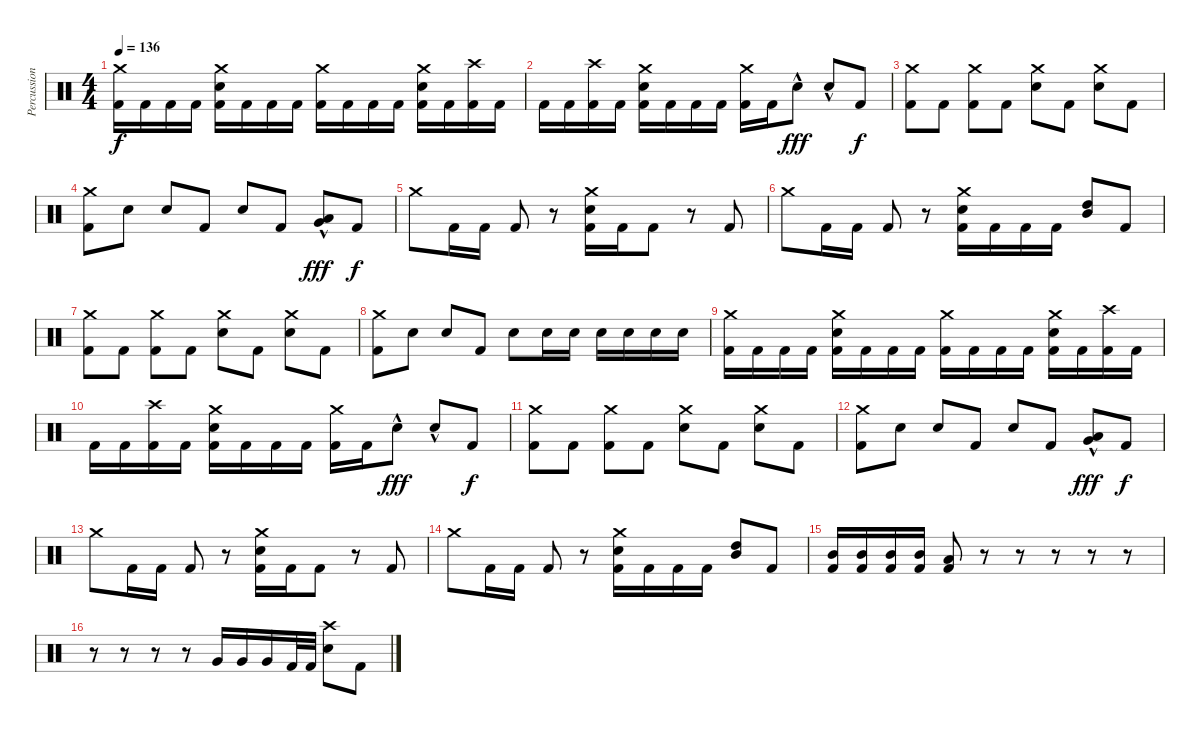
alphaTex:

\track ("Percussion" "Percussion") {instrument percussion}
\staff {score}
\articulation defaults
\ts (4 4)
\tempo 136
\clef neutral
\ks c
("Crash medium (hit)" "Kick (hit) 2").16{dy f} "Kick (hit) 2".16 "Kick (hit) 2".16 "Kick (hit) 2".16 ("Crash medium (hit)" "Electric Snare (hit)" "Kick (hit) 2").16 "Kick (hit) 2".16 "Kick (hit) 2".16 "Kick (hit) 2".16 ("Crash medium (hit)" "Kick (hit) 2").16 "Kick (hit) 2".16 "Kick (hit) 2".16 "Kick (hit) 2".16 ("Crash medium (hit)" "Electric Snare (hit)" "Kick (hit) 2").16 "Kick (hit) 2".16 ("Crash high (hit)" "Kick (hit) 2").16 "Kick (hit) 2".16 |
"Kick (hit) 2".16 "Kick (hit) 2".16 ("Crash high (hit)" "Kick (hit) 2").16 "Kick (hit) 2".16 ("Crash medium (hit)" "Electric Snare (hit)" "Kick (hit) 2").16 "Kick (hit) 2".16 "Kick (hit) 2".16 "Kick (hit) 2".16 ("Crash medium (hit)" "Kick (hit) 2").16 "Kick (hit) 2".16 "Electric Snare (hit)"{hac}.8{dy fff} "Electric Snare (hit)"{hac}.8 "Kick (hit) 2".8{dy f} |
("Crash medium (hit)" "Kick (hit) 2").8 "Kick (hit) 2".8 ("Crash medium (hit)" "Kick (hit) 2").8 "Kick (hit) 2".8 ("Crash medium (hit)" "Electric Snare (hit)").8 "Kick (hit) 2".8 ("Crash medium (hit)" "Electric Snare (hit)").8 "Kick (hit) 2".8 |
("Crash medium (hit)" "Kick (hit) 2").8 "Electric Snare (hit)".8 "Electric Snare (hit)".8 "Kick (hit) 2".8 "Electric Snare (hit)".8 "Kick (hit) 2".8 ("Very Low Tom (hit)" "Low Floor Tom (hit)"{hac}).8{dy fff} "Kick (hit) 2".8{dy f} |
"Crash medium (hit)".8 "Kick (hit) 2".16 "Kick (hit) 2".16 "Kick (hit) 2".8 r.8 ("Crash medium (hit)" "Electric Snare (hit)" "Kick (hit) 2").16 "Kick (hit) 2".16 "Kick (hit) 2".8 r.8 "Kick (hit) 2".8 |
"Crash medium (hit)".8 "Kick (hit) 2".16 "Kick (hit) 2".16 "Kick (hit) 2".8 r.8 ("Crash medium (hit)" "Electric Snare (hit)" "Kick (hit) 2").16 "Kick (hit) 2".16 "Kick (hit) 2".16 "Kick (hit) 2".16 ("Mid Tom (hit)" "High Tom (hit)").8 "Kick (hit) 2".8 |
("Crash medium (hit)" "Kick (hit) 2").8 "Kick (hit) 2".8 ("Crash medium (hit)" "Kick (hit) 2").8 "Kick (hit) 2".8 ("Crash medium (hit)" "Electric Snare (hit)").8 "Kick (hit) 2".8 ("Crash medium (hit)" "Electric Snare (hit)").8 "Kick (hit) 2".8 |
("Crash medium (hit)" "Kick (hit) 2").8 "Electric Snare (hit)".8 "Electric Snare (hit)".8 "Kick (hit) 2".8 "Electric Snare (hit)".8 "Electric Snare (hit)".16 "Electric Snare (hit)".16 "Electric Snare (hit)".16 "Electric Snare (hit)".16 "Electric Snare (hit)".16 "Electric Snare (hit)".16 |
("Crash medium (hit)" "Kick (hit) 2").16 "Kick (hit) 2".16 "Kick (hit) 2".16 "Kick (hit) 2".16 ("Crash medium (hit)" "Electric Snare (hit)" "Kick (hit) 2").16 "Kick (hit) 2".16 "Kick (hit) 2".16 "Kick (hit) 2".16 ("Crash medium (hit)" "Kick (hit) 2").16 "Kick (hit) 2".16 "Kick (hit) 2".16 "Kick (hit) 2".16 ("Crash medium (hit)" "Electric Snare (hit)" "Kick (hit) 2").16 "Kick (hit) 2".16 ("Crash high (hit)" "Kick (hit) 2").16 "Kick (hit) 2".16 |
"Kick (hit) 2".16 "Kick (hit) 2".16 ("Crash high (hit)" "Kick (hit) 2").16 "Kick (hit) 2".16 ("Crash medium (hit)" "Electric Snare (hit)" "Kick (hit) 2").16 "Kick (hit) 2".16 "Kick (hit) 2".16 "Kick (hit) 2".16 ("Crash medium (hit)" "Kick (hit) 2").16 "Kick (hit) 2".16 "Electric Snare (hit)"{hac}.8{dy fff} "Electric Snare (hit)"{hac}.8 "Kick (hit) 2".8{dy f} |
("Crash medium (hit)" "Kick (hit) 2").8 "Kick (hit) 2".8 ("Crash medium (hit)" "Kick (hit) 2").8 "Kick (hit) 2".8 ("Crash medium (hit)" "Electric Snare (hit)").8 "Kick (hit) 2".8 ("Crash medium (hit)" "Electric Snare (hit)").8 "Kick (hit) 2".8 |
("Crash medium (hit)" "Kick (hit) 2").8 "Electric Snare (hit)".8 "Electric Snare (hit)".8 "Kick (hit) 2".8 "Electric Snare (hit)".8 "Kick (hit) 2".8 ("Very Low Tom (hit)" "Low Floor Tom (hit)"{hac}).8{dy fff} "Kick (hit) 2".8{dy f} |
"Crash medium (hit)".8 "Kick (hit) 2".16 "Kick (hit) 2".16 "Kick (hit) 2".8 r.8 ("Crash medium (hit)" "Electric Snare (hit)" "Kick (hit) 2").16 "Kick (hit) 2".16 "Kick (hit) 2".8 r.8 "Kick (hit) 2".8 |
"Crash medium (hit)".8 "Kick (hit) 2".16 "Kick (hit) 2".16 "Kick (hit) 2".8 r.8 ("Crash medium (hit)" "Electric Snare (hit)" "Kick (hit) 2").16 "Kick (hit) 2".16 "Kick (hit) 2".16 "Kick (hit) 2".16 ("High Tom (hit)" "Mid Tom (hit)").8 "Kick (hit) 2".8 |
("Mid Tom (hit)" "Kick (hit) 2").16 ("Mid Tom (hit)" "Kick (hit) 2").16 ("Mid Tom (hit)" "Kick (hit) 2").16 ("Mid Tom (hit)" "Kick (hit) 2").16 ("Low Floor Tom (hit)" "Kick (hit) 2").8 r.8 r.8 r.8 r.8 r.8 |
r.8 r.8 r.8 r.8 "Very Low Tom (hit)".16 "Very Low Tom (hit)".16 "Very Low Tom (hit)".16 "Kick (hit) 2".32 "Kick (hit) 2".32 ("Crash high (hit)" "Electric Snare (hit)").8 "Kick (hit) 2".8
